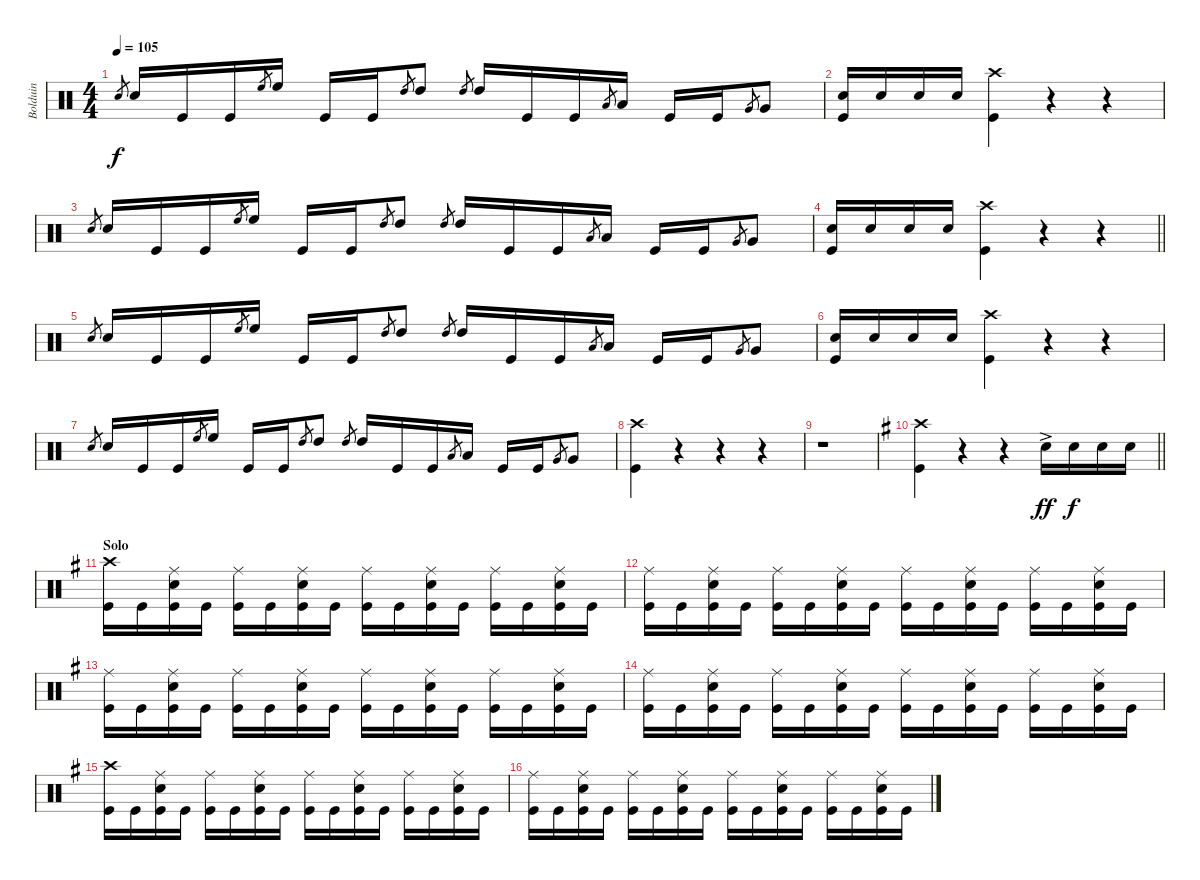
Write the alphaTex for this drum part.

\track ("Bolduin" "Bolduin") {instrument percussion}
\staff {score}
\articulation defaults
\ts (4 4)
\tempo 105
\clef neutral
\ks aminor "Snare (hit) 2".8{gr dy f} "Snare (hit) 2".16 "Kick (hit)".16 "Kick (hit)".16 "High Floor Tom (hit)".8{gr} "High Floor Tom (hit)".16 "Kick (hit)".16 "Kick (hit)".16 "High Tom (hit)".8{gr} "High Tom (hit)".8 "High Tom (hit)".8{gr} "High Tom (hit)".16 "Kick (hit)".16 "Kick (hit)".16 "Low Tom (hit)".8{gr} "Low Tom (hit)".16 "Kick (hit)".16 "Kick (hit)".16 "Very Low Tom (hit)".8{gr} "Very Low Tom (hit)".8
|
("Kick (hit)" "Snare (hit) 2").16 "Snare (hit) 2".16 "Snare (hit) 2".16 "Snare (hit) 2".16 ("Kick (hit)" "Crash high (hit)").4 r.4 r.4 |
"Snare (hit) 2".8{gr} "Snare (hit) 2".16 "Kick (hit)".16 "Kick (hit)".16 "High Floor Tom (hit)".8{gr} "High Floor Tom (hit)".16 "Kick (hit)".16 "Kick (hit)".16 "High Tom (hit)".8{gr} "High Tom (hit)".8 "High Tom (hit)".8{gr} "High Tom (hit)".16 "Kick (hit)".16 "Kick (hit)".16 "Low Tom (hit)".8{gr} "Low Tom (hit)".16 "Kick (hit)".16 "Kick (hit)".16 "Very Low Tom (hit)".8{gr} "Very Low Tom (hit)".8 |
\barLineRight lightlight
("Kick (hit)" "Snare (hit) 2").16 "Snare (hit) 2".16 "Snare (hit) 2".16 "Snare (hit) 2".16 ("Kick (hit)" "Crash high (hit)").4 r.4 r.4 |
"Snare (hit) 2".8{gr} "Snare (hit) 2".16 "Kick (hit)".16 "Kick (hit)".16 "High Floor Tom (hit)".8{gr} "High Floor Tom (hit)".16 "Kick (hit)".16 "Kick (hit)".16 "High Tom (hit)".8{gr} "High Tom (hit)".8 "High Tom (hit)".8{gr} "High Tom (hit)".16 "Kick (hit)".16 "Kick (hit)".16 "Low Tom (hit)".8{gr} "Low Tom (hit)".16 "Kick (hit)".16 "Kick (hit)".16 "Very Low Tom (hit)".8{gr} "Very Low Tom (hit)".8 |
("Kick (hit)" "Snare (hit) 2").16 "Snare (hit) 2".16 "Snare (hit) 2".16 "Snare (hit) 2".16 ("Kick (hit)" "Crash high (hit)").4 r.4 r.4 |
"Snare (hit) 2".8{gr} "Snare (hit) 2".16 "Kick (hit)".16 "Kick (hit)".16 "High Floor Tom (hit)".8{gr} "High Floor Tom (hit)".16 "Kick (hit)".16 "Kick (hit)".16 "High Tom (hit)".8{gr} "High Tom (hit)".8 "High Tom (hit)".8{gr} "High Tom (hit)".16 "Kick (hit)".16 "Kick (hit)".16 "Low Tom (hit)".8{gr} "Low Tom (hit)".16 "Kick (hit)".16 "Kick (hit)".16 "Very Low Tom (hit)".8{gr} "Very Low Tom (hit)".8 |
("Crash high (hit)" "Kick (hit)").4 r.4 r.4 r.4 |
r.1 |
\barLineRight lightlight
\ks eminor
("Crash high (hit)" "Kick (hit)").4 r.4 r.4 "Snare (hit) 2"{ac}.16{dy ff} "Snare (hit) 2".16{dy f} "Snare (hit) 2".16 "Snare (hit) 2".16 |
\section ("" "Solo")
("Kick (hit)" "Crash high (hit)").16 "Kick (hit)".16 ("Kick (hit)" "Ride (middle)" "Snare (hit) 2").16 "Kick (hit)".16 ("Kick (hit)" "Ride (middle)").16 "Kick (hit)".16 ("Kick (hit)" "Ride (middle)" "Snare (hit) 2").16 "Kick (hit)".16 ("Kick (hit)" "Ride (middle)").16 "Kick (hit)".16 ("Kick (hit)" "Ride (middle)" "Snare (hit) 2").16 "Kick (hit)".16 ("Kick (hit)" "Ride (middle)").16 "Kick (hit)".16 ("Kick (hit)" "Ride (middle)" "Snare (hit) 2").16 "Kick (hit)".16 |
("Kick (hit)" "Ride (middle)").16 "Kick (hit)".16 ("Kick (hit)" "Ride (middle)" "Snare (hit) 2").16 "Kick (hit)".16 ("Kick (hit)" "Ride (middle)").16 "Kick (hit)".16 ("Kick (hit)" "Ride (middle)" "Snare (hit) 2").16 "Kick (hit)".16 ("Kick (hit)" "Ride (middle)").16 "Kick (hit)".16 ("Kick (hit)" "Ride (middle)" "Snare (hit) 2").16 "Kick (hit)".16 ("Kick (hit)" "Ride (middle)").16 "Kick (hit)".16 ("Kick (hit)" "Ride (middle)" "Snare (hit) 2").16 "Kick (hit)".16 |
("Kick (hit)" "Ride (middle)").16 "Kick (hit)".16 ("Kick (hit)" "Ride (middle)" "Snare (hit) 2").16 "Kick (hit)".16 ("Kick (hit)" "Ride (middle)").16 "Kick (hit)".16 ("Kick (hit)" "Ride (middle)" "Snare (hit) 2").16 "Kick (hit)".16 ("Kick (hit)" "Ride (middle)").16 "Kick (hit)".16 ("Kick (hit)" "Ride (middle)" "Snare (hit) 2").16 "Kick (hit)".16 ("Kick (hit)" "Ride (middle)").16 "Kick (hit)".16 ("Kick (hit)" "Ride (middle)" "Snare (hit) 2").16 "Kick (hit)".16 |
("Kick (hit)" "Ride (middle)").16 "Kick (hit)".16 ("Kick (hit)" "Ride (middle)" "Snare (hit) 2").16 "Kick (hit)".16 ("Kick (hit)" "Ride (middle)").16 "Kick (hit)".16 ("Kick (hit)" "Ride (middle)" "Snare (hit) 2").16 "Kick (hit)".16 ("Kick (hit)" "Ride (middle)").16 "Kick (hit)".16 ("Kick (hit)" "Ride (middle)" "Snare (hit) 2").16 "Kick (hit)".16 ("Kick (hit)" "Ride (middle)").16 "Kick (hit)".16 ("Kick (hit)" "Ride (middle)" "Snare (hit) 2").16 "Kick (hit)".16 |
("Kick (hit)" "Crash high (hit)").16 "Kick (hit)".16 ("Kick (hit)" "Ride (middle)" "Snare (hit) 2").16 "Kick (hit)".16 ("Kick (hit)" "Ride (middle)").16 "Kick (hit)".16 ("Kick (hit)" "Ride (middle)" "Snare (hit) 2").16 "Kick (hit)".16 ("Kick (hit)" "Ride (middle)").16 "Kick (hit)".16 ("Kick (hit)" "Ride (middle)" "Snare (hit) 2").16 "Kick (hit)".16 ("Kick (hit)" "Ride (middle)").16 "Kick (hit)".16 ("Kick (hit)" "Ride (middle)" "Snare (hit) 2").16 "Kick (hit)".16 |
("Kick (hit)" "Ride (middle)").16 "Kick (hit)".16 ("Kick (hit)" "Ride (middle)" "Snare (hit) 2").16 "Kick (hit)".16 ("Kick (hit)" "Ride (middle)").16 "Kick (hit)".16 ("Kick (hit)" "Ride (middle)" "Snare (hit) 2").16 "Kick (hit)".16 ("Kick (hit)" "Ride (middle)").16 "Kick (hit)".16 ("Kick (hit)" "Ride (middle)" "Snare (hit) 2").16 "Kick (hit)".16 ("Kick (hit)" "Ride (middle)").16 "Kick (hit)".16 ("Kick (hit)" "Ride (middle)" "Snare (hit) 2").16 "Kick (hit)".16
